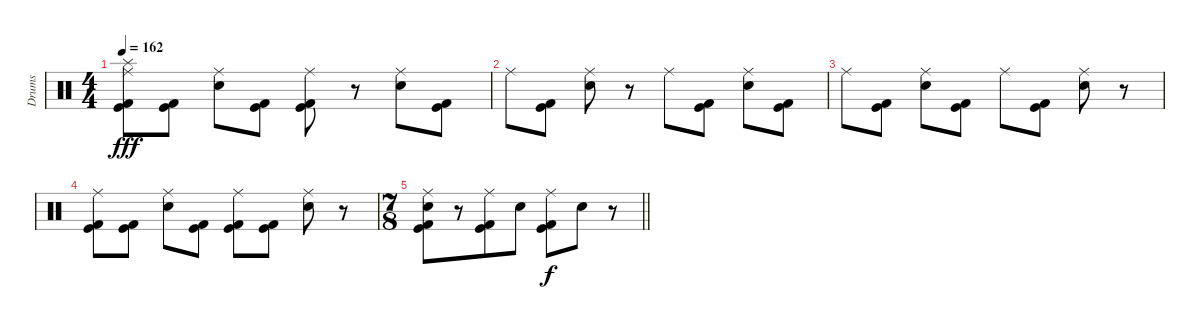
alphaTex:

\track ("Drums" "Drums") {instrument percussion}
\staff {score}
\articulation defaults
\ts (4 4)
\tempo 162
\clef neutral
\ks c
("Splash (hit)" "Ride (middle)" "Kick (hit)" "Kick (hit) 2").8{dy fff} ("Kick (hit)" "Kick (hit) 2").8 ("Ride (middle)" "Electric Snare (hit)").8 ("Kick (hit)" "Kick (hit) 2").8 ("Ride (middle)" "Kick (hit)" "Kick (hit) 2").8 r.8 ("Ride (middle)" "Electric Snare (hit)").8 ("Kick (hit)" "Kick (hit) 2").8 |
"Ride (middle)".8 ("Kick (hit)" "Kick (hit) 2").8 ("Ride (middle)" "Electric Snare (hit)").8 r.8 "Ride (middle)".8 ("Kick (hit)" "Kick (hit) 2").8 ("Ride (middle)" "Electric Snare (hit)").8 ("Kick (hit)" "Kick (hit) 2").8 |
"Ride (middle)".8 ("Kick (hit)" "Kick (hit) 2").8 ("Ride (middle)" "Electric Snare (hit)").8 ("Kick (hit)" "Kick (hit) 2").8 "Ride (middle)".8 ("Kick (hit)" "Kick (hit) 2").8 ("Ride (middle)" "Electric Snare (hit)").8 r.8 |
("Ride (middle)" "Kick (hit)" "Kick (hit) 2").8 ("Kick (hit)" "Kick (hit) 2").8 ("Ride (middle)" "Electric Snare (hit)").8 ("Kick (hit)" "Kick (hit) 2").8 ("Ride (middle)" "Kick (hit)" "Kick (hit) 2").8 ("Kick (hit)" "Kick (hit) 2").8 ("Ride (middle)" "Electric Snare (hit)").8 r.8 |
\ts (7 8)
\barLineRight lightlight
("Ride (middle)" "Electric Snare (hit)" "Kick (hit)" "Kick (hit) 2").8 r.8 ("Ride (middle)" "Kick (hit)" "Kick (hit) 2").8 "Electric Snare (hit)".8 ("Ride (middle)" "Kick (hit)" "Kick (hit) 2").8{dy f} "Electric Snare (hit)".8 r.8
